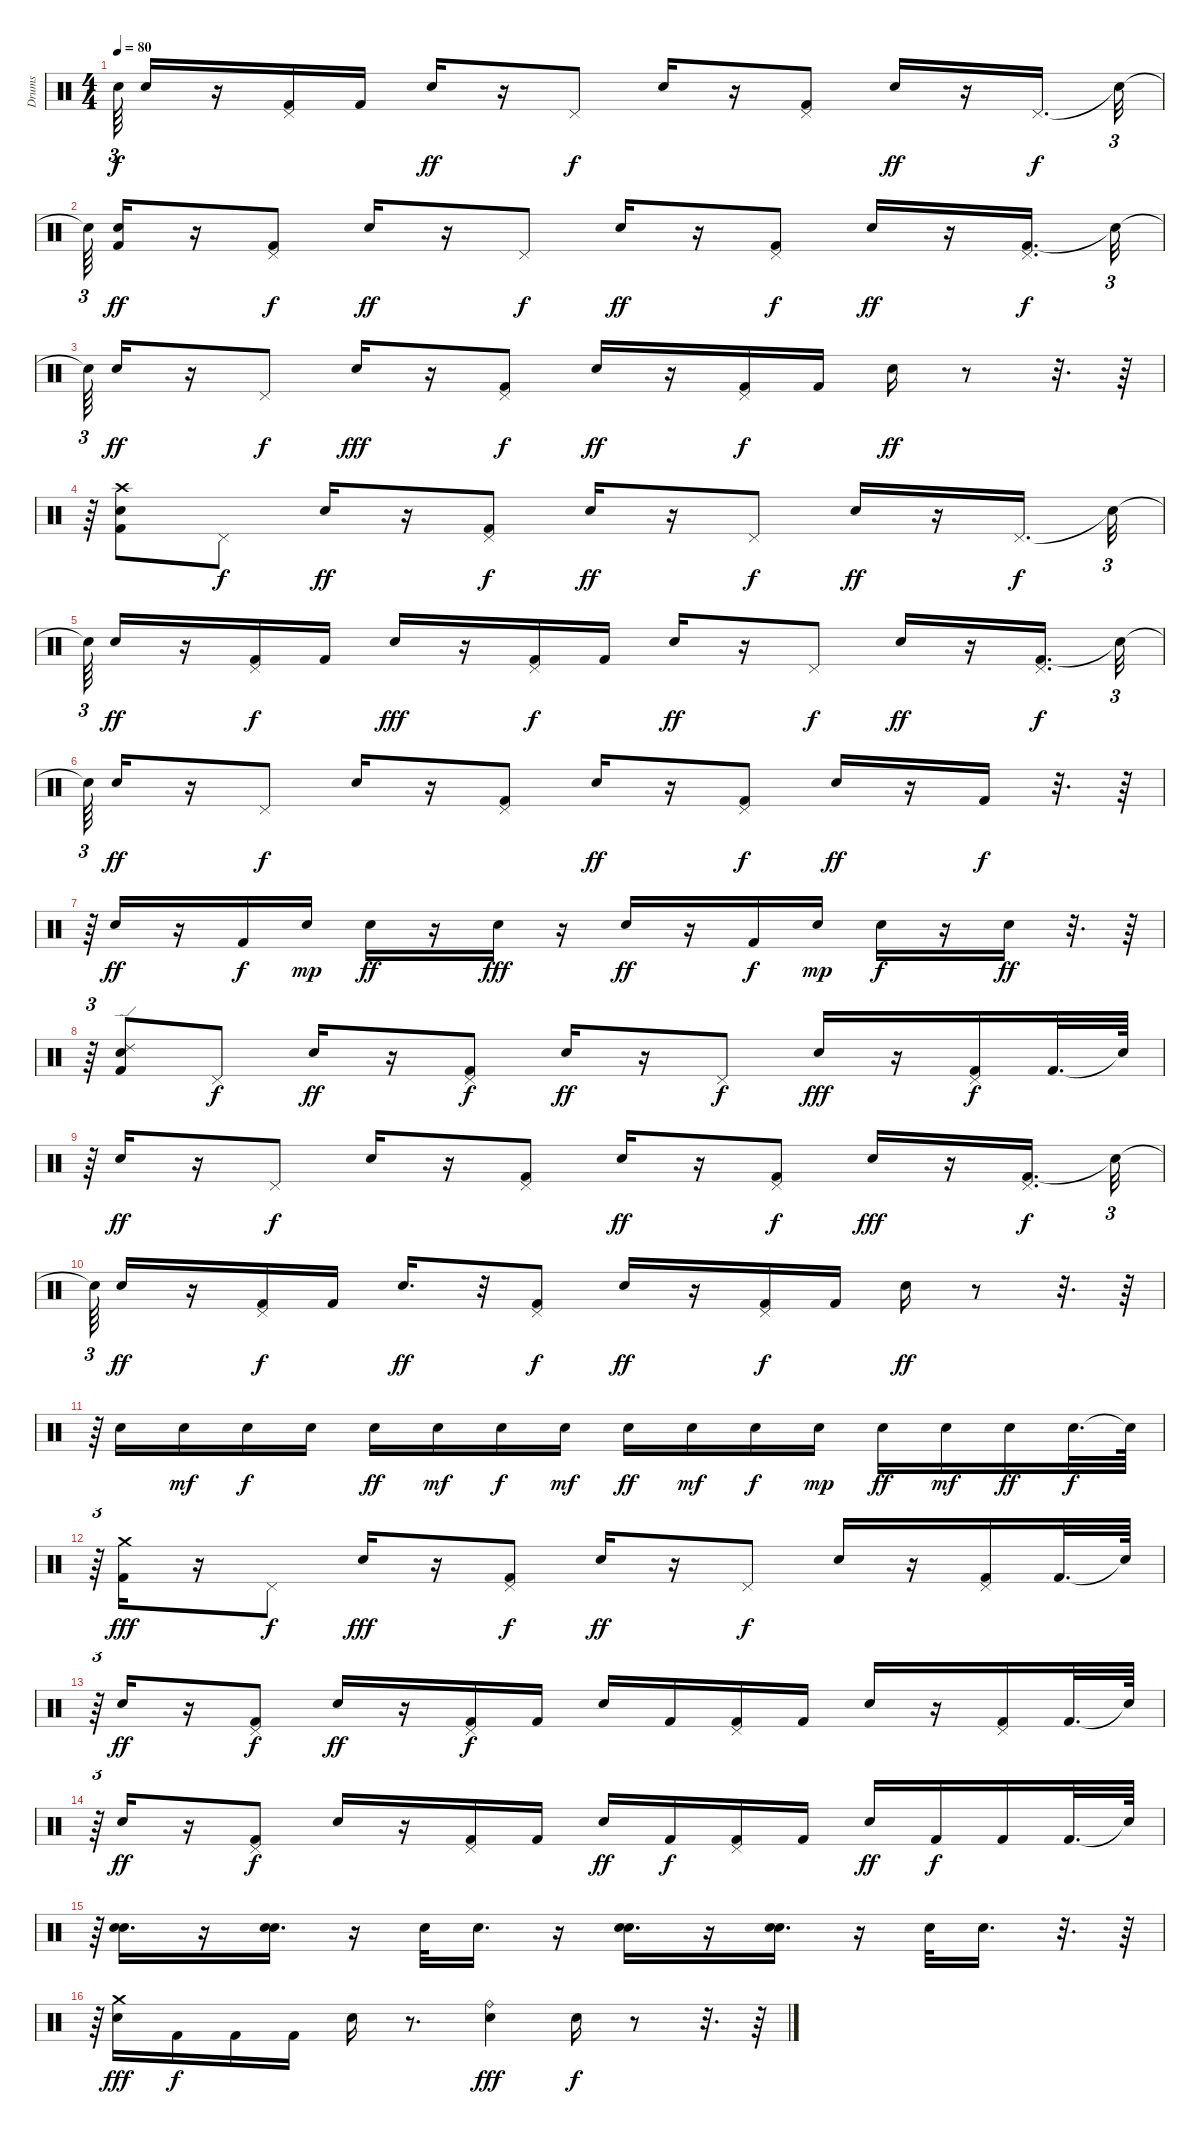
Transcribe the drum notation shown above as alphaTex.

\track ("Drums" "Drums") {instrument percussion}
\staff {score}
\articulation defaults
\ts (4 4)
\tempo 80
\clef neutral
\ks c "Snare (hit)"{t}.64{tu (3 2) dy f} "Electric Snare (hit)".16
r.16 ("Kick (hit) 2" "Pedal Hi-Hat (hit)").16 "Kick (hit) 2".16 "Electric Snare (hit)".16{dy ff} r.16 "Pedal Hi-Hat (hit)".8{dy f} "Electric Snare (hit)".16 r.16 ("Kick (hit) 2" "Pedal Hi-Hat (hit)").8 "Electric Snare (hit)".16{dy ff} r.16 "Pedal Hi-Hat (hit)".16{d dy f} "Snare (hit)"{t}.32{tu (3 2)} |
"Snare (hit)"{t}.64{tu (3 2)} ("Kick (hit) 2" "Electric Snare (hit)").16{dy ff} r.16 ("Kick (hit) 2" "Pedal Hi-Hat (hit)").8{dy f} "Electric Snare (hit)".16{dy ff} r.16 "Pedal Hi-Hat (hit)".8{dy f} "Electric Snare (hit)".16{dy ff} r.16 ("Kick (hit) 2" "Pedal Hi-Hat (hit)").8{dy f} "Electric Snare (hit)".16{dy ff} r.16 ("Kick (hit) 2" "Pedal Hi-Hat (hit)").16{d dy f} "Snare (hit)"{t}.32{tu (3 2)} |
"Snare (hit)"{t}.64{tu (3 2)} "Electric Snare (hit)".16{dy ff} r.16 "Pedal Hi-Hat (hit)".8{dy f} "Electric Snare (hit)".16{dy fff} r.16 ("Kick (hit) 2" "Pedal Hi-Hat (hit)").8{dy f} "Electric Snare (hit)".16{dy ff} r.16 ("Kick (hit) 2" "Pedal Hi-Hat (hit)").16{dy f} "Kick (hit) 2".16 "Electric Snare (hit)".16{dy ff} r.8 r.32{d} r.64 |
r.64{tu (3 2)} ("Kick (hit) 2" "Crash high (hit)" "Electric Snare (hit)").8 "Pedal Hi-Hat (hit)".8{dy f} "Electric Snare (hit)".16{dy ff} r.16 ("Kick (hit) 2" "Pedal Hi-Hat (hit)").8{dy f} "Electric Snare (hit)".16{dy ff} r.16 "Pedal Hi-Hat (hit)".8{dy f} "Electric Snare (hit)".16{dy ff} r.16 "Pedal Hi-Hat (hit)".16{d dy f} "Snare (hit)"{t}.32{tu (3 2)} |
"Snare (hit)"{t}.64{tu (3 2)} "Electric Snare (hit)".16{dy ff} r.16 ("Kick (hit) 2" "Pedal Hi-Hat (hit)").16{dy f} "Kick (hit) 2".16 "Electric Snare (hit)".16{dy fff} r.16 ("Kick (hit) 2" "Pedal Hi-Hat (hit)").16{dy f} "Kick (hit) 2".16 "Electric Snare (hit)".16{dy ff} r.16 "Pedal Hi-Hat (hit)".8{dy f} "Electric Snare (hit)".16{dy ff} r.16 ("Kick (hit) 2" "Pedal Hi-Hat (hit)").16{d dy f} "Snare (hit)"{t}.32{tu (3 2)} |
"Snare (hit)"{t}.64{tu (3 2)} "Electric Snare (hit)".16{dy ff} r.16 "Pedal Hi-Hat (hit)".8{dy f} "Electric Snare (hit)".16 r.16 ("Kick (hit) 2" "Pedal Hi-Hat (hit)").8 "Electric Snare (hit)".16{dy ff} r.16 ("Kick (hit) 2" "Pedal Hi-Hat (hit)").8{dy f} "Electric Snare (hit)".16{dy ff} r.16 "Kick (hit) 2".16{dy f} r.32{d} r.64 |
r.64{tu (3 2)} "Electric Snare (hit)".16{dy ff} r.16 "Kick (hit) 2".16{dy f} "Snare (hit) 2".16{dy mp} "Electric Snare (hit)".16{dy ff} r.16 "Electric Snare (hit)".16{dy fff} r.16 "Snare (hit) 2".16{dy ff} r.16 "Kick (hit) 2".16{dy f} "Electric Snare (hit)".16{dy mp} "Snare (hit) 2".16{dy f} r.16 "Electric Snare (hit)".16{dy ff} r.32{d} r.64 |
r.64{tu (3 2)} ("Kick (hit) 2" "Ride (edge) 2" "Electric Snare (hit)").8 "Pedal Hi-Hat (hit)".8{dy f} "Electric Snare (hit)".16{dy ff} r.16 ("Kick (hit) 2" "Pedal Hi-Hat (hit)").8{dy f} "Electric Snare (hit)".16{dy ff} r.16 "Pedal Hi-Hat (hit)".8{dy f} "Electric Snare (hit)".16{dy fff} r.16 ("Kick (hit) 2" "Pedal Hi-Hat (hit)").16{dy f} "Kick (hit) 2".32{d} "Snare (hit)"{t}.64 |
r.64{tu (3 2)} "Electric Snare (hit)".16{dy ff} r.16 "Pedal Hi-Hat (hit)".8{dy f} "Electric Snare (hit)".16 r.16 ("Kick (hit) 2" "Pedal Hi-Hat (hit)").8 "Electric Snare (hit)".16{dy ff} r.16 ("Kick (hit) 2" "Pedal Hi-Hat (hit)").8{dy f} "Electric Snare (hit)".16{dy fff} r.16 ("Kick (hit) 2" "Pedal Hi-Hat (hit)").16{d dy f} "Snare (hit)"{t}.32{tu (3 2)} |
"Snare (hit)"{t}.64{tu (3 2)} "Electric Snare (hit)".16{dy ff} r.16 ("Kick (hit) 2" "Pedal Hi-Hat (hit)").16{dy f} "Kick (hit) 2".16 "Electric Snare (hit)".16{d dy ff} r.32 ("Kick (hit) 2" "Pedal Hi-Hat (hit)").8{dy f} "Electric Snare (hit)".16{dy ff} r.16 ("Kick (hit) 2" "Pedal Hi-Hat (hit)").16{dy f} "Kick (hit) 2".16 "Electric Snare (hit)".16{dy ff} r.8 r.32{d} r.64 |
r.64{tu (3 2)} "Snare (hit) 2".16 "Electric Snare (hit)".16{dy mf} "Snare (hit) 2".16{dy f} "Electric Snare (hit)".16 "Snare (hit) 2".16{dy ff} "Electric Snare (hit)".16{dy mf} "Snare (hit) 2".16{dy f} "Electric Snare (hit)".16{dy mf} "Snare (hit) 2".16{dy ff} "Electric Snare (hit)".16{dy mf} "Snare (hit) 2".16{dy f} "Electric Snare (hit)".16{dy mp} "Snare (hit) 2".16{dy ff} "Electric Snare (hit)".16{dy mf} "Snare (hit) 2".16{dy ff} "Electric Snare (hit)".32{d dy f} "Snare (hit)"{t}.64 |
r.64{tu (3 2)} ("Kick (hit) 2" "Crash medium (hit)").16{dy fff} r.16 "Pedal Hi-Hat (hit)".8{dy f} "Electric Snare (hit)".16{dy fff} r.16 ("Kick (hit) 2" "Pedal Hi-Hat (hit)").8{dy f} "Electric Snare (hit)".16{dy ff} r.16 "Pedal Hi-Hat (hit)".8{dy f} "Electric Snare (hit)".16 r.16 ("Kick (hit) 2" "Pedal Hi-Hat (hit)").16 "Kick (hit) 2".32{d} "Snare (hit)"{t}.64 |
r.64{tu (3 2)} "Electric Snare (hit)".16{dy ff} r.16 ("Kick (hit) 2" "Pedal Hi-Hat (hit)").8{dy f} "Electric Snare (hit)".16{dy ff} r.16 ("Kick (hit) 2" "Pedal Hi-Hat (hit)").16{dy f} "Kick (hit) 2".16 "Electric Snare (hit)".16 "Kick (hit) 2".16 ("Kick (hit) 2" "Pedal Hi-Hat (hit)").16 "Kick (hit) 2".16 "Electric Snare (hit)".16 r.16 ("Kick (hit) 2" "Pedal Hi-Hat (hit)").16 "Kick (hit) 2".32{d} "Snare (hit)"{t}.64 |
r.64{tu (3 2)} "Electric Snare (hit)".16{dy ff} r.16 ("Kick (hit) 2" "Pedal Hi-Hat (hit)").8{dy f} "Electric Snare (hit)".16 r.16 ("Kick (hit) 2" "Pedal Hi-Hat (hit)").16 "Kick (hit) 2".16 "Electric Snare (hit)".16{dy ff} "Kick (hit) 2".16{dy f} ("Kick (hit) 2" "Pedal Hi-Hat (hit)").16 "Kick (hit) 2".16 "Electric Snare (hit)".16{dy ff} "Kick (hit) 2".16{dy f} "Kick (hit) 2".16 "Kick (hit) 2".32{d} "Snare (hit)"{t}.64 |
r.64{tu (3 2)} ("Electric Snare (hit)" "Snare (hit) 2").16{d} r.16 ("Electric Snare (hit)" "Snare (hit) 2").16{d} r.16 "Electric Snare (hit)".32 "Snare (hit) 2".16{d} r.16 ("Electric Snare (hit)" "Snare (hit) 2").16{d} r.16 ("Electric Snare (hit)" "Snare (hit) 2").16{d} r.16 "Electric Snare (hit)".32 "Snare (hit) 2".16{d} r.32{d} r.64 |
r.64{tu (3 2)} ("Crash medium (hit)" "Electric Snare (hit)").16{dy fff} "Kick (hit) 2".16{dy f} "Kick (hit) 2".16 "Kick (hit) 2".16 "Electric Snare (hit)".16 r.8{d} ("Ride (bell)" "Electric Snare (hit)").4{dy fff} "Electric Snare (hit)".16{dy f} r.8 r.32{d} r.64
